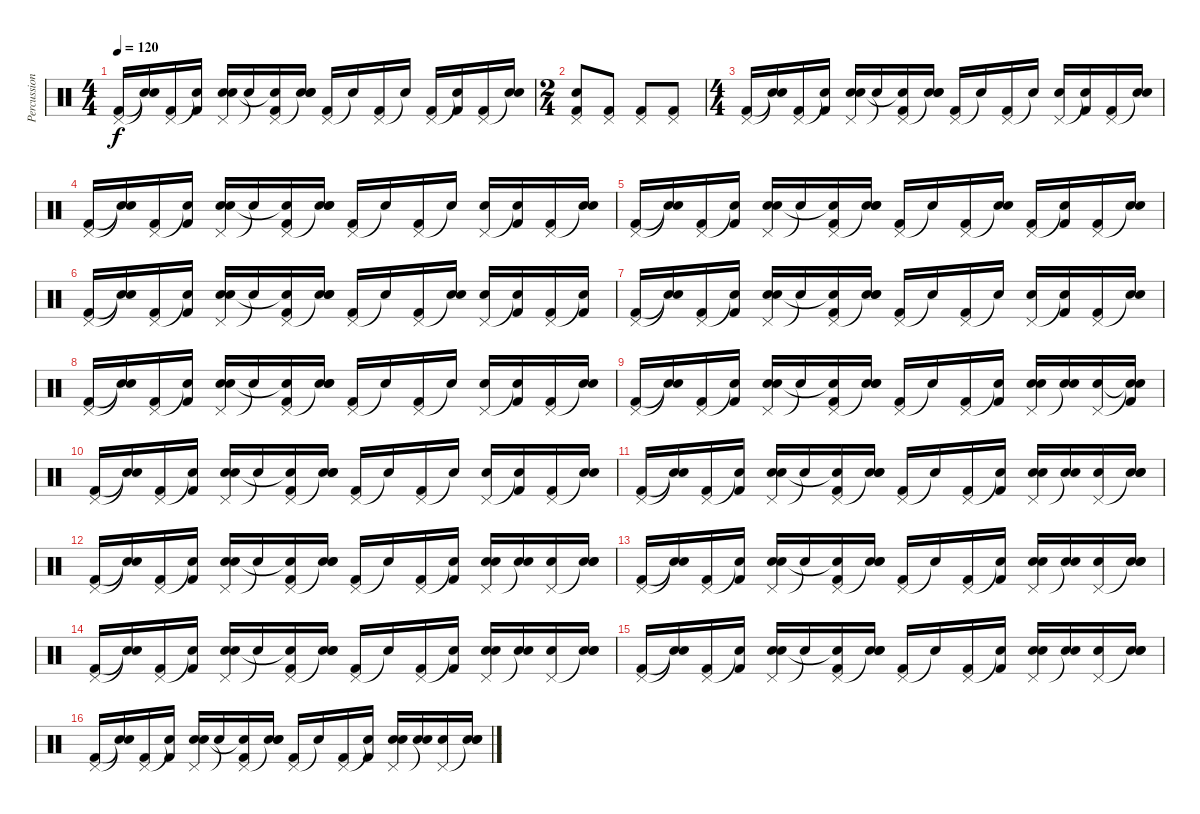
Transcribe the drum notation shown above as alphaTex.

\track ("Percussions" "Percussion") {instrument percussion}
\staff {score}
\articulation defaults
\ts (4 4)
\tempo 120
\clef neutral
\ks c
("Pedal Hi-Hat (hit)" "Kick (hit) 2").16{dy f} ("Snare (hit)"{t} "Snare (hit)"{t}).16 ("Pedal Hi-Hat (hit)" "Kick (hit) 2").16 ("Snare (hit)"{t} "Kick (hit) 2").16 ("Pedal Hi-Hat (hit)" "Electric Snare (hit)" "Snare (hit) 2").16 "Snare (hit)"{t}.16 ("Pedal Hi-Hat (hit)" "Snare (hit)"{t} "Kick (hit) 2").16 ("Snare (hit)"{t} "Electric Snare (hit)" "Snare (hit) 2").16 ("Pedal Hi-Hat (hit)" "Kick (hit) 2").16 "Snare (hit)"{t}.16 ("Pedal Hi-Hat (hit)" "Kick (hit) 2").16 "Snare (hit)"{t}.16 ("Pedal Hi-Hat (hit)" "Kick (hit) 2").16 ("Snare (hit)"{t} "Kick (hit) 2").16 ("Pedal Hi-Hat (hit)" "Kick (hit) 2").16 ("Snare (hit)"{t} "Electric Snare (hit)").16 |
\ts (2 4)
("Pedal Hi-Hat (hit)" "Electric Snare (hit)" "Kick (hit) 2").8 ("Pedal Hi-Hat (hit)" "Kick (hit) 2").8 ("Pedal Hi-Hat (hit)" "Kick (hit) 2").8 ("Pedal Hi-Hat (hit)" "Kick (hit) 2").8 |
\ts (4 4)
("Pedal Hi-Hat (hit)" "Kick (hit) 2").16 ("Snare (hit)"{t} "Snare (hit)"{t}).16 ("Pedal Hi-Hat (hit)" "Kick (hit) 2").16 ("Snare (hit)"{t} "Kick (hit) 2").16 ("Pedal Hi-Hat (hit)" "Electric Snare (hit)" "Snare (hit) 2").16 "Snare (hit)"{t}.16 ("Pedal Hi-Hat (hit)" "Snare (hit)"{t} "Kick (hit) 2").16 ("Snare (hit)"{t} "Electric Snare (hit)" "Snare (hit) 2").16 ("Pedal Hi-Hat (hit)" "Kick (hit) 2").16 "Snare (hit)"{t}.16 ("Pedal Hi-Hat (hit)" "Kick (hit) 2").16 "Snare (hit)"{t}.16 ("Pedal Hi-Hat (hit)" "Snare (hit) 2").16 ("Snare (hit)"{t} "Kick (hit) 2").16 ("Pedal Hi-Hat (hit)" "Kick (hit) 2").16 ("Snare (hit)"{t} "Electric Snare (hit)").16 |
("Pedal Hi-Hat (hit)" "Kick (hit) 2").16 ("Snare (hit)"{t} "Snare (hit)"{t}).16 ("Pedal Hi-Hat (hit)" "Kick (hit) 2").16 ("Snare (hit)"{t} "Kick (hit) 2").16 ("Pedal Hi-Hat (hit)" "Electric Snare (hit)" "Snare (hit) 2").16 "Snare (hit)"{t}.16 ("Pedal Hi-Hat (hit)" "Snare (hit)"{t} "Kick (hit) 2").16 ("Snare (hit)"{t} "Electric Snare (hit)" "Snare (hit) 2").16 ("Pedal Hi-Hat (hit)" "Kick (hit) 2").16 "Snare (hit)"{t}.16 ("Pedal Hi-Hat (hit)" "Kick (hit) 2").16 "Snare (hit)"{t}.16 ("Pedal Hi-Hat (hit)" "Electric Snare (hit)").16 ("Snare (hit)"{t} "Kick (hit) 2").16 ("Pedal Hi-Hat (hit)" "Kick (hit) 2").16 ("Snare (hit)"{t} "Snare (hit) 2").16 |
("Pedal Hi-Hat (hit)" "Kick (hit) 2").16 ("Snare (hit)"{t} "Snare (hit)"{t}).16 ("Pedal Hi-Hat (hit)" "Kick (hit) 2").16 ("Snare (hit)"{t} "Kick (hit) 2").16 ("Pedal Hi-Hat (hit)" "Electric Snare (hit)" "Snare (hit) 2").16 "Snare (hit)"{t}.16 ("Pedal Hi-Hat (hit)" "Snare (hit)"{t} "Kick (hit) 2").16 ("Snare (hit)"{t} "Electric Snare (hit)" "Snare (hit) 2").16 ("Pedal Hi-Hat (hit)" "Kick (hit) 2").16 "Snare (hit)"{t}.16 ("Pedal Hi-Hat (hit)" "Kick (hit) 2").16 ("Snare (hit)"{t} "Snare (hit) 2").16 ("Pedal Hi-Hat (hit)" "Kick (hit) 2").16 ("Snare (hit)"{t} "Kick (hit) 2").16 ("Pedal Hi-Hat (hit)" "Kick (hit) 2").16 ("Snare (hit)"{t} "Electric Snare (hit)").16 |
("Pedal Hi-Hat (hit)" "Kick (hit) 2").16 ("Snare (hit)"{t} "Snare (hit)"{t}).16 ("Pedal Hi-Hat (hit)" "Kick (hit) 2").16 ("Snare (hit)"{t} "Kick (hit) 2").16 ("Pedal Hi-Hat (hit)" "Electric Snare (hit)" "Snare (hit) 2").16 "Snare (hit)"{t}.16 ("Pedal Hi-Hat (hit)" "Snare (hit)"{t} "Kick (hit) 2").16 ("Snare (hit)"{t} "Electric Snare (hit)" "Snare (hit) 2").16 ("Pedal Hi-Hat (hit)" "Kick (hit) 2").16 "Snare (hit)"{t}.16 ("Pedal Hi-Hat (hit)" "Kick (hit) 2").16 ("Snare (hit)"{t} "Snare (hit) 2").16 ("Pedal Hi-Hat (hit)" "Electric Snare (hit)").16 ("Snare (hit)"{t} "Kick (hit) 2").16 ("Pedal Hi-Hat (hit)" "Kick (hit) 2").16 ("Snare (hit)"{t} "Kick (hit) 2").16 |
("Pedal Hi-Hat (hit)" "Kick (hit) 2").16 ("Snare (hit)"{t} "Snare (hit)"{t}).16 ("Pedal Hi-Hat (hit)" "Kick (hit) 2").16 ("Snare (hit)"{t} "Kick (hit) 2").16 ("Pedal Hi-Hat (hit)" "Electric Snare (hit)" "Snare (hit) 2").16 "Snare (hit)"{t}.16 ("Pedal Hi-Hat (hit)" "Snare (hit)"{t} "Kick (hit) 2").16 ("Snare (hit)"{t} "Electric Snare (hit)" "Snare (hit) 2").16 ("Pedal Hi-Hat (hit)" "Kick (hit) 2").16 "Snare (hit)"{t}.16 ("Pedal Hi-Hat (hit)" "Kick (hit) 2").16 "Snare (hit)"{t}.16 ("Pedal Hi-Hat (hit)" "Snare (hit) 2").16 ("Snare (hit)"{t} "Kick (hit) 2").16 ("Pedal Hi-Hat (hit)" "Kick (hit) 2").16 ("Snare (hit)"{t} "Electric Snare (hit)").16 |
("Pedal Hi-Hat (hit)" "Kick (hit) 2").16 ("Snare (hit)"{t} "Snare (hit)"{t}).16 ("Pedal Hi-Hat (hit)" "Kick (hit) 2").16 ("Snare (hit)"{t} "Kick (hit) 2").16 ("Pedal Hi-Hat (hit)" "Electric Snare (hit)" "Snare (hit) 2").16 "Snare (hit)"{t}.16 ("Pedal Hi-Hat (hit)" "Snare (hit)"{t} "Kick (hit) 2").16 ("Snare (hit)"{t} "Electric Snare (hit)" "Snare (hit) 2").16 ("Pedal Hi-Hat (hit)" "Kick (hit) 2").16 "Snare (hit)"{t}.16 ("Pedal Hi-Hat (hit)" "Kick (hit) 2").16 "Snare (hit)"{t}.16 ("Pedal Hi-Hat (hit)" "Snare (hit) 2").16 ("Snare (hit)"{t} "Kick (hit) 2").16 ("Pedal Hi-Hat (hit)" "Kick (hit) 2").16 ("Snare (hit)"{t} "Electric Snare (hit)").16 |
("Pedal Hi-Hat (hit)" "Kick (hit) 2").16 ("Snare (hit)"{t} "Snare (hit)"{t}).16 ("Pedal Hi-Hat (hit)" "Kick (hit) 2").16 ("Snare (hit)"{t} "Kick (hit) 2").16 ("Pedal Hi-Hat (hit)" "Electric Snare (hit)" "Snare (hit) 2").16 "Snare (hit)"{t}.16 ("Pedal Hi-Hat (hit)" "Snare (hit)"{t} "Kick (hit) 2").16 ("Snare (hit)"{t} "Electric Snare (hit)" "Snare (hit) 2").16 ("Pedal Hi-Hat (hit)" "Kick (hit) 2").16 "Snare (hit)"{t}.16 ("Pedal Hi-Hat (hit)" "Kick (hit) 2").16 ("Snare (hit)"{t} "Kick (hit) 2").16 ("Pedal Hi-Hat (hit)" "Electric Snare (hit)" "Snare (hit) 2").16 ("Snare (hit)"{t} "Snare (hit) 2").16 ("Pedal Hi-Hat (hit)" "Snare (hit) 2").16 ("Snare (hit)"{t} "Snare (hit)"{t} "Kick (hit) 2").16 |
("Pedal Hi-Hat (hit)" "Kick (hit) 2").16 ("Snare (hit)"{t} "Snare (hit)"{t}).16 ("Pedal Hi-Hat (hit)" "Kick (hit) 2").16 ("Snare (hit)"{t} "Kick (hit) 2").16 ("Pedal Hi-Hat (hit)" "Electric Snare (hit)" "Snare (hit) 2").16 "Snare (hit)"{t}.16 ("Pedal Hi-Hat (hit)" "Snare (hit)"{t} "Kick (hit) 2").16 ("Snare (hit)"{t} "Electric Snare (hit)" "Snare (hit) 2").16 ("Pedal Hi-Hat (hit)" "Kick (hit) 2").16 "Snare (hit)"{t}.16 ("Pedal Hi-Hat (hit)" "Kick (hit) 2").16 "Snare (hit)"{t}.16 ("Pedal Hi-Hat (hit)" "Snare (hit) 2").16 ("Snare (hit)"{t} "Kick (hit) 2").16 ("Pedal Hi-Hat (hit)" "Kick (hit) 2").16 ("Snare (hit)"{t} "Electric Snare (hit)").16 |
("Pedal Hi-Hat (hit)" "Kick (hit) 2").16 ("Snare (hit)"{t} "Snare (hit)"{t}).16 ("Pedal Hi-Hat (hit)" "Kick (hit) 2").16 ("Snare (hit)"{t} "Kick (hit) 2").16 ("Pedal Hi-Hat (hit)" "Electric Snare (hit)" "Snare (hit) 2").16 "Snare (hit)"{t}.16 ("Pedal Hi-Hat (hit)" "Snare (hit)"{t} "Kick (hit) 2").16 ("Snare (hit)"{t} "Electric Snare (hit)" "Snare (hit) 2").16 ("Pedal Hi-Hat (hit)" "Kick (hit) 2").16 "Snare (hit)"{t}.16 ("Pedal Hi-Hat (hit)" "Kick (hit) 2").16 ("Snare (hit)"{t} "Kick (hit) 2").16 ("Pedal Hi-Hat (hit)" "Electric Snare (hit)" "Snare (hit) 2").16 ("Snare (hit)"{t} "Snare (hit) 2").16 ("Pedal Hi-Hat (hit)" "Snare (hit) 2").16 ("Snare (hit)"{t} "Electric Snare (hit)" "Snare (hit) 2").16 |
("Pedal Hi-Hat (hit)" "Kick (hit) 2").16 ("Snare (hit)"{t} "Snare (hit)"{t}).16 ("Pedal Hi-Hat (hit)" "Kick (hit) 2").16 ("Snare (hit)"{t} "Kick (hit) 2").16 ("Pedal Hi-Hat (hit)" "Electric Snare (hit)" "Snare (hit) 2").16 "Snare (hit)"{t}.16 ("Pedal Hi-Hat (hit)" "Snare (hit)"{t} "Kick (hit) 2").16 ("Snare (hit)"{t} "Electric Snare (hit)" "Snare (hit) 2").16 ("Pedal Hi-Hat (hit)" "Kick (hit) 2").16 "Snare (hit)"{t}.16 ("Pedal Hi-Hat (hit)" "Kick (hit) 2").16 ("Snare (hit)"{t} "Kick (hit) 2").16 ("Pedal Hi-Hat (hit)" "Electric Snare (hit)" "Snare (hit) 2").16 ("Snare (hit)"{t} "Snare (hit) 2").16 ("Pedal Hi-Hat (hit)" "Snare (hit) 2").16 ("Snare (hit)"{t} "Electric Snare (hit)" "Snare (hit) 2").16 |
("Pedal Hi-Hat (hit)" "Kick (hit) 2").16 ("Snare (hit)"{t} "Snare (hit)"{t}).16 ("Pedal Hi-Hat (hit)" "Kick (hit) 2").16 ("Snare (hit)"{t} "Kick (hit) 2").16 ("Pedal Hi-Hat (hit)" "Electric Snare (hit)" "Snare (hit) 2").16 "Snare (hit)"{t}.16 ("Pedal Hi-Hat (hit)" "Snare (hit)"{t} "Kick (hit) 2").16 ("Snare (hit)"{t} "Electric Snare (hit)" "Snare (hit) 2").16 ("Pedal Hi-Hat (hit)" "Kick (hit) 2").16 "Snare (hit)"{t}.16 ("Pedal Hi-Hat (hit)" "Kick (hit) 2").16 ("Snare (hit)"{t} "Kick (hit) 2").16 ("Pedal Hi-Hat (hit)" "Electric Snare (hit)" "Snare (hit) 2").16 ("Snare (hit)"{t} "Snare (hit) 2").16 ("Pedal Hi-Hat (hit)" "Snare (hit) 2").16 ("Snare (hit)"{t} "Electric Snare (hit)" "Snare (hit) 2").16 |
("Pedal Hi-Hat (hit)" "Kick (hit) 2").16 ("Snare (hit)"{t} "Snare (hit)"{t}).16 ("Pedal Hi-Hat (hit)" "Kick (hit) 2").16 ("Snare (hit)"{t} "Kick (hit) 2").16 ("Pedal Hi-Hat (hit)" "Electric Snare (hit)" "Snare (hit) 2").16 "Snare (hit)"{t}.16 ("Pedal Hi-Hat (hit)" "Snare (hit)"{t} "Kick (hit) 2").16 ("Snare (hit)"{t} "Electric Snare (hit)" "Snare (hit) 2").16 ("Pedal Hi-Hat (hit)" "Kick (hit) 2").16 "Snare (hit)"{t}.16 ("Pedal Hi-Hat (hit)" "Kick (hit) 2").16 ("Snare (hit)"{t} "Kick (hit) 2").16 ("Pedal Hi-Hat (hit)" "Electric Snare (hit)" "Snare (hit) 2").16 ("Snare (hit)"{t} "Snare (hit) 2").16 ("Pedal Hi-Hat (hit)" "Snare (hit) 2").16 ("Snare (hit)"{t} "Electric Snare (hit)" "Snare (hit) 2").16 |
("Pedal Hi-Hat (hit)" "Kick (hit) 2").16 ("Snare (hit)"{t} "Snare (hit)"{t}).16 ("Pedal Hi-Hat (hit)" "Kick (hit) 2").16 ("Snare (hit)"{t} "Kick (hit) 2").16 ("Pedal Hi-Hat (hit)" "Electric Snare (hit)" "Snare (hit) 2").16 "Snare (hit)"{t}.16 ("Pedal Hi-Hat (hit)" "Snare (hit)"{t} "Kick (hit) 2").16 ("Snare (hit)"{t} "Electric Snare (hit)" "Snare (hit) 2").16 ("Pedal Hi-Hat (hit)" "Kick (hit) 2").16 "Snare (hit)"{t}.16 ("Pedal Hi-Hat (hit)" "Kick (hit) 2").16 ("Snare (hit)"{t} "Kick (hit) 2").16 ("Pedal Hi-Hat (hit)" "Electric Snare (hit)" "Snare (hit) 2").16 ("Snare (hit)"{t} "Snare (hit) 2").16 ("Pedal Hi-Hat (hit)" "Snare (hit) 2").16 ("Snare (hit)"{t} "Electric Snare (hit)" "Snare (hit) 2").16 |
("Pedal Hi-Hat (hit)" "Kick (hit) 2").16 ("Snare (hit)"{t} "Snare (hit)"{t}).16 ("Pedal Hi-Hat (hit)" "Kick (hit) 2").16 ("Snare (hit)"{t} "Kick (hit) 2").16 ("Pedal Hi-Hat (hit)" "Electric Snare (hit)" "Snare (hit) 2").16 "Snare (hit)"{t}.16 ("Pedal Hi-Hat (hit)" "Snare (hit)"{t} "Kick (hit) 2").16 ("Snare (hit)"{t} "Electric Snare (hit)" "Snare (hit) 2").16 ("Pedal Hi-Hat (hit)" "Kick (hit) 2").16 "Snare (hit)"{t}.16 ("Pedal Hi-Hat (hit)" "Kick (hit) 2").16 ("Snare (hit)"{t} "Kick (hit) 2").16 ("Pedal Hi-Hat (hit)" "Electric Snare (hit)" "Snare (hit) 2").16 ("Snare (hit)"{t} "Snare (hit) 2").16 ("Pedal Hi-Hat (hit)" "Snare (hit) 2").16 ("Snare (hit)"{t} "Electric Snare (hit)" "Snare (hit) 2").16
